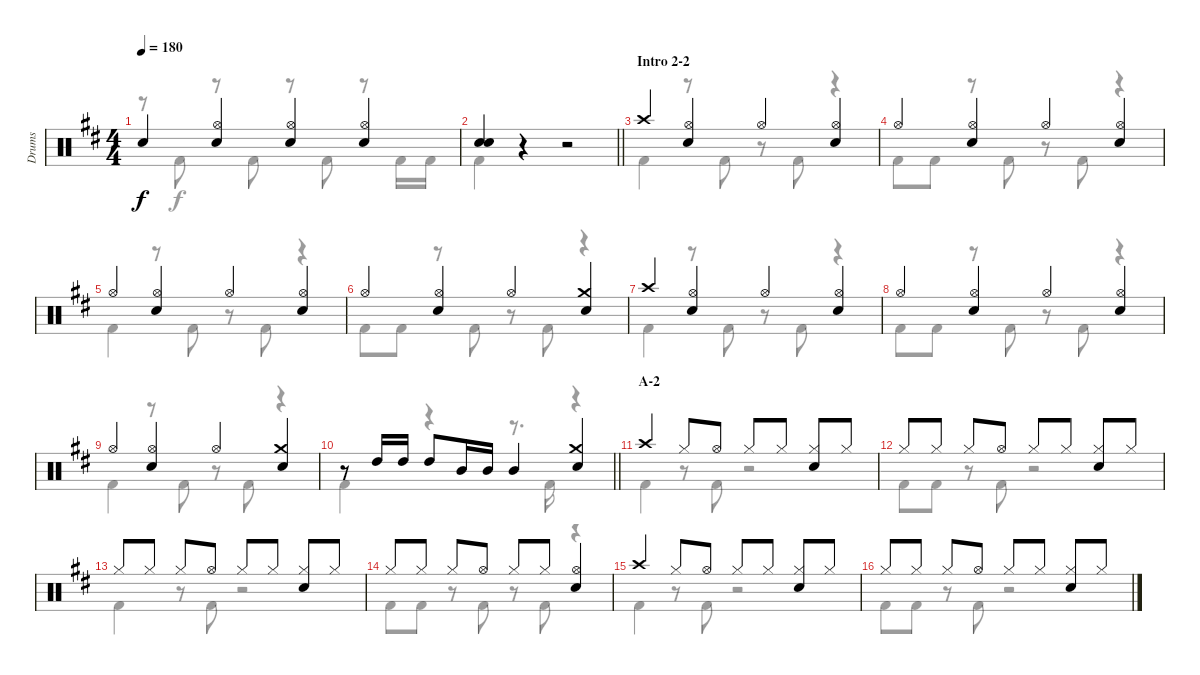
\track ("Drums" "Drums") {instrument percussion}
\staff {score}
\articulation defaults
\voice
\ts (4 4)
\tempo 180
\clef neutral
\ks d "Snare (hit)"{t}.4{dy f}
("Hi-Hat (open)" "Snare (hit) 2").4 ("Hi-Hat (open)" "Snare (hit) 2").4 ("Hi-Hat (open)" "Snare (hit) 2").4 |
\barLineRight lightlight
("Snare (hit) 2" "Snare (hit) 2").4 r.4 r.2 |
\section ("" "Intro 2-2")
"Crash high (hit)".4 ("Hi-Hat (open)" "Snare (hit) 2").4 "Hi-Hat (open)".4 ("Hi-Hat (open)" "Snare (hit) 2").4 |
"Hi-Hat (open)".4 ("Hi-Hat (open)" "Snare (hit) 2").4 "Hi-Hat (open)".4 ("Hi-Hat (open)" "Snare (hit) 2").4 |
"Hi-Hat (open)".4 ("Hi-Hat (open)" "Snare (hit) 2").4 "Hi-Hat (open)".4 ("Hi-Hat (open)" "Snare (hit) 2").4 |
"Hi-Hat (open)".4 ("Hi-Hat (open)" "Snare (hit) 2").4 "Hi-Hat (open)".4 ("Crash medium (hit)" "Snare (hit) 2").4 |
"Crash high (hit)".4 ("Hi-Hat (open)" "Snare (hit) 2").4 "Hi-Hat (open)".4 ("Hi-Hat (open)" "Snare (hit) 2").4 |
"Hi-Hat (open)".4 ("Hi-Hat (open)" "Snare (hit) 2").4 "Hi-Hat (open)".4 ("Hi-Hat (open)" "Snare (hit) 2").4 |
"Hi-Hat (open)".4 ("Hi-Hat (open)" "Snare (hit) 2").4 "Hi-Hat (open)".4 ("Crash medium (hit)" "Snare (hit) 2").4 |
\barLineRight lightlight
r.8 "High Tom (hit)".16 "High Tom (hit)".16 "High Tom (hit)".8 "Mid Tom (hit)".16 "Mid Tom (hit)".16 "Mid Tom (hit)".4 ("Crash medium (hit)" "Snare (hit) 2").4 |
\section ("" "A-2")
"Crash high (hit)".4 "Hi-Hat (closed)".8 "Hi-Hat (open)".8 "Hi-Hat (closed)".8 "Hi-Hat (closed)".8 ("Hi-Hat (closed)" "Snare (hit) 2").8 "Hi-Hat (closed)".8 |
"Hi-Hat (closed)".8 "Hi-Hat (closed)".8 "Hi-Hat (closed)".8 "Hi-Hat (open)".8 "Hi-Hat (closed)".8 "Hi-Hat (closed)".8 ("Hi-Hat (closed)" "Snare (hit) 2").8 "Hi-Hat (closed)".8 |
"Hi-Hat (closed)".8 "Hi-Hat (closed)".8 "Hi-Hat (closed)".8 "Hi-Hat (open)".8 "Hi-Hat (closed)".8 "Hi-Hat (closed)".8 ("Hi-Hat (closed)" "Snare (hit) 2").8 "Hi-Hat (closed)".8 |
"Hi-Hat (closed)".8 "Hi-Hat (closed)".8 "Hi-Hat (closed)".8 "Hi-Hat (open)".8 "Hi-Hat (closed)".8 "Hi-Hat (closed)".8 ("Hi-Hat (open)" "Snare (hit) 2").4 |
"Crash high (hit)".4 "Hi-Hat (closed)".8 "Hi-Hat (open)".8 "Hi-Hat (closed)".8 "Hi-Hat (closed)".8 ("Hi-Hat (closed)" "Snare (hit) 2").8 "Hi-Hat (closed)".8 |
"Hi-Hat (closed)".8 "Hi-Hat (closed)".8 "Hi-Hat (closed)".8 "Hi-Hat (open)".8 "Hi-Hat (closed)".8 "Hi-Hat (closed)".8 ("Hi-Hat (closed)" "Snare (hit) 2").8 "Hi-Hat (closed)".8
\voice
\clef neutral
\ottava regular
\simile none
\ks d
r.8{dy f} "Kick (hit) 2".8 r.8 "Kick (hit) 2".8 r.8 "Kick (hit) 2".8 r.8 "Kick (hit) 2".16 "Kick (hit) 2".16 |
\barLineRight lightlight "Kick (hit) 2".4
r.4 r.2 |
"Kick (hit) 2".4 r.8 "Kick (hit) 2".8 r.8 "Kick (hit) 2".8 r.4 |
"Kick (hit) 2".8 "Kick (hit) 2".8 r.8 "Kick (hit) 2".8 r.8 "Kick (hit) 2".8 r.4 |
"Kick (hit) 2".4 r.8 "Kick (hit) 2".8 r.8 "Kick (hit) 2".8 r.4 |
"Kick (hit) 2".8 "Kick (hit) 2".8 r.8 "Kick (hit) 2".8 r.8 "Kick (hit) 2".8 r.4 |
"Kick (hit) 2".4 r.8 "Kick (hit) 2".8 r.8 "Kick (hit) 2".8 r.4 |
"Kick (hit) 2".8 "Kick (hit) 2".8 r.8 "Kick (hit) 2".8 r.8 "Kick (hit) 2".8 r.4 |
"Kick (hit) 2".4 r.8 "Kick (hit) 2".8 r.8 "Kick (hit) 2".8 r.4 |
\barLineRight lightlight "Kick (hit) 2".4
r.4 r.8{d} "Kick (hit) 2".16 r.4 |
"Kick (hit) 2".4 r.8 "Kick (hit) 2".8 r.2 |
"Kick (hit) 2".8 "Kick (hit) 2".8 r.8 "Kick (hit) 2".8 r.2 |
"Kick (hit) 2".4 r.8 "Kick (hit) 2".8 r.2 |
"Kick (hit) 2".8 "Kick (hit) 2".8 r.8 "Kick (hit) 2".8 r.8 "Kick (hit) 2".8 r.4 |
"Kick (hit) 2".4 r.8 "Kick (hit) 2".8 r.2 |
"Kick (hit) 2".8 "Kick (hit) 2".8 r.8 "Kick (hit) 2".8 r.2
